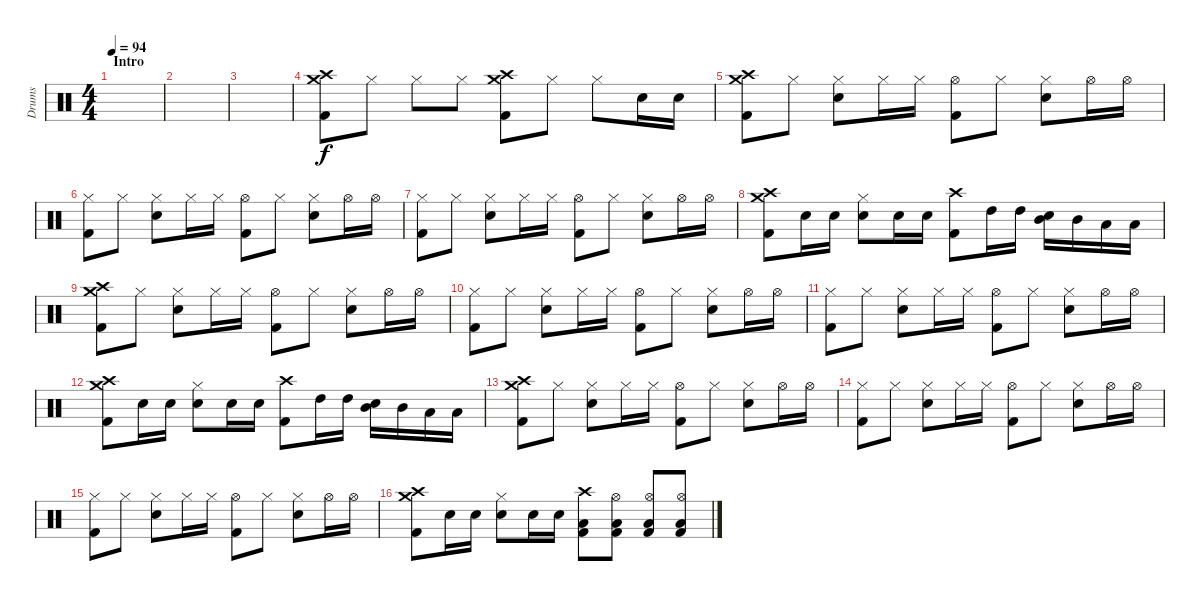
\track ("Drums" "Drums") {instrument percussion}
\staff {score}
\articulation defaults
\ts (4 4)
\section ("" "Intro")
\tempo 94
\clef neutral
\ks c
|
|
|
("Crash high (hit)" "Crash medium (hit)" "Kick (hit) 2").8 "Hi-Hat (closed)".8 "Hi-Hat (closed)".8 "Hi-Hat (closed)".8 ("Crash high (hit)" "Crash medium (hit)" "Kick (hit) 2").8 "Hi-Hat (closed)".8 "Hi-Hat (closed)".8 "Electric Snare (hit)".16 "Electric Snare (hit)".16 |
("Crash high (hit)" "Crash medium (hit)" "Kick (hit) 2").8 "Hi-Hat (closed)".8 ("Hi-Hat (closed)" "Electric Snare (hit)").8 "Hi-Hat (closed)".16 "Hi-Hat (closed)".16 ("Hi-Hat (open)" "Kick (hit) 2").8 "Hi-Hat (closed)".8 ("Hi-Hat (closed)" "Electric Snare (hit)").8 "Hi-Hat (open)".16 "Hi-Hat (open)".16 |
("Hi-Hat (closed)" "Kick (hit) 2").8 "Hi-Hat (closed)".8 ("Hi-Hat (closed)" "Electric Snare (hit)").8 "Hi-Hat (closed)".16 "Hi-Hat (closed)".16 ("Hi-Hat (open)" "Kick (hit) 2").8 "Hi-Hat (closed)".8 ("Hi-Hat (closed)" "Electric Snare (hit)").8 "Hi-Hat (open)".16 "Hi-Hat (open)".16 |
("Hi-Hat (closed)" "Kick (hit) 2").8 "Hi-Hat (closed)".8 ("Hi-Hat (closed)" "Electric Snare (hit)").8 "Hi-Hat (closed)".16 "Hi-Hat (closed)".16 ("Hi-Hat (open)" "Kick (hit) 2").8 "Hi-Hat (closed)".8 ("Hi-Hat (closed)" "Electric Snare (hit)").8 "Hi-Hat (open)".16 "Hi-Hat (open)".16 |
("Crash high (hit)" "Crash medium (hit)" "Kick (hit) 2").8 "Electric Snare (hit)".16 "Electric Snare (hit)".16 ("Hi-Hat (closed)" "Electric Snare (hit)").8 "Electric Snare (hit)".16 "Electric Snare (hit)".16 ("Crash high (hit)" "Kick (hit) 2").8 "High Tom (hit)".16 "High Tom (hit)".16 ("Mid Tom (hit)" "Electric Snare (hit)").16 "Mid Tom (hit)".16 "Low Tom (hit)".16 "Low Tom (hit)".16 |
("Crash high (hit)" "Crash medium (hit)" "Kick (hit) 2").8 "Hi-Hat (closed)".8 ("Hi-Hat (closed)" "Electric Snare (hit)").8 "Hi-Hat (closed)".16 "Hi-Hat (closed)".16 ("Hi-Hat (open)" "Kick (hit) 2").8 "Hi-Hat (closed)".8 ("Hi-Hat (closed)" "Electric Snare (hit)").8 "Hi-Hat (open)".16 "Hi-Hat (open)".16 |
("Hi-Hat (closed)" "Kick (hit) 2").8 "Hi-Hat (closed)".8 ("Hi-Hat (closed)" "Electric Snare (hit)").8 "Hi-Hat (closed)".16 "Hi-Hat (closed)".16 ("Hi-Hat (open)" "Kick (hit) 2").8 "Hi-Hat (closed)".8 ("Hi-Hat (closed)" "Electric Snare (hit)").8 "Hi-Hat (open)".16 "Hi-Hat (open)".16 |
("Hi-Hat (closed)" "Kick (hit) 2").8 "Hi-Hat (closed)".8 ("Hi-Hat (closed)" "Electric Snare (hit)").8 "Hi-Hat (closed)".16 "Hi-Hat (closed)".16 ("Hi-Hat (open)" "Kick (hit) 2").8 "Hi-Hat (closed)".8 ("Hi-Hat (closed)" "Electric Snare (hit)").8 "Hi-Hat (open)".16 "Hi-Hat (open)".16 |
("Crash high (hit)" "Crash medium (hit)" "Kick (hit) 2").8 "Electric Snare (hit)".16 "Electric Snare (hit)".16 ("Hi-Hat (closed)" "Electric Snare (hit)").8 "Electric Snare (hit)".16 "Electric Snare (hit)".16 ("Crash high (hit)" "Kick (hit) 2").8 "High Tom (hit)".16 "High Tom (hit)".16 ("Mid Tom (hit)" "Electric Snare (hit)").16 "Mid Tom (hit)".16 "Low Tom (hit)".16 "Low Tom (hit)".16 |
("Crash high (hit)" "Crash medium (hit)" "Kick (hit) 2").8 "Hi-Hat (closed)".8 ("Hi-Hat (closed)" "Electric Snare (hit)").8 "Hi-Hat (closed)".16 "Hi-Hat (closed)".16 ("Hi-Hat (open)" "Kick (hit) 2").8 "Hi-Hat (closed)".8 ("Hi-Hat (closed)" "Electric Snare (hit)").8 "Hi-Hat (open)".16 "Hi-Hat (open)".16 |
("Hi-Hat (closed)" "Kick (hit) 2").8 "Hi-Hat (closed)".8 ("Hi-Hat (closed)" "Electric Snare (hit)").8 "Hi-Hat (closed)".16 "Hi-Hat (closed)".16 ("Hi-Hat (open)" "Kick (hit) 2").8 "Hi-Hat (closed)".8 ("Hi-Hat (closed)" "Electric Snare (hit)").8 "Hi-Hat (open)".16 "Hi-Hat (open)".16 |
("Hi-Hat (closed)" "Kick (hit) 2").8 "Hi-Hat (closed)".8 ("Hi-Hat (closed)" "Electric Snare (hit)").8 "Hi-Hat (closed)".16 "Hi-Hat (closed)".16 ("Hi-Hat (open)" "Kick (hit) 2").8 "Hi-Hat (closed)".8 ("Hi-Hat (closed)" "Electric Snare (hit)").8 "Hi-Hat (open)".16 "Hi-Hat (open)".16 |
("Crash high (hit)" "Crash medium (hit)" "Kick (hit) 2").8 "Electric Snare (hit)".16 "Electric Snare (hit)".16 ("Hi-Hat (closed)" "Electric Snare (hit)").8 "Electric Snare (hit)".16 "Electric Snare (hit)".16 ("Low Floor Tom (hit)" "Crash high (hit)" "Kick (hit) 2").8 ("Low Floor Tom (hit)" "Hi-Hat (open)" "Kick (hit) 2").8 ("Low Floor Tom (hit)" "Hi-Hat (open)" "Kick (hit) 2").8 ("Low Floor Tom (hit)" "Hi-Hat (open)" "Kick (hit) 2").8
